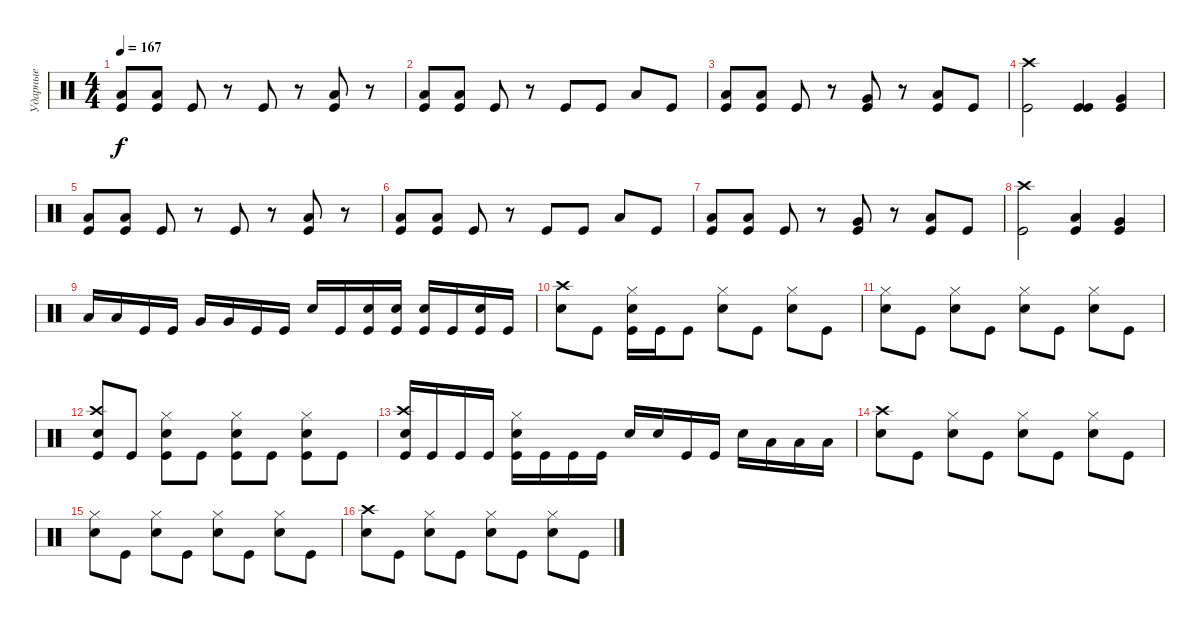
\track ("Ударные" "Ударные") {instrument percussion}
\staff {score}
\articulation defaults
\ts (4 4)
\tempo 167
\clef neutral
\ks c
("Low Tom (hit)" "Kick (hit)").8{dy f} ("Low Tom (hit)" "Kick (hit)").8 "Kick (hit)".8 r.8 "Kick (hit)".8 r.8 ("Low Tom (hit)" "Kick (hit)").8 r.8 |
("Low Tom (hit)" "Kick (hit)").8 ("Low Tom (hit)" "Kick (hit)").8 "Kick (hit)".8 r.8 "Kick (hit)".8 "Kick (hit)".8 "Low Tom (hit)".8 "Kick (hit)".8 |
("Low Tom (hit)" "Kick (hit)").8 ("Low Tom (hit)" "Kick (hit)").8 "Kick (hit)".8 r.8 ("Very Low Tom (hit)" "Kick (hit)").8 r.8 ("Low Tom (hit)" "Kick (hit)").8 "Kick (hit)".8 |
("Crash high (hit)" "Kick (hit)").2 ("Kick (hit)" "Kick (hit)").4 ("Very Low Tom (hit)" "Kick (hit)").4 |
("Low Tom (hit)" "Kick (hit)").8 ("Low Tom (hit)" "Kick (hit)").8 "Kick (hit)".8 r.8 "Kick (hit)".8 r.8 ("Low Tom (hit)" "Kick (hit)").8 r.8 |
("Low Tom (hit)" "Kick (hit)").8 ("Low Tom (hit)" "Kick (hit)").8 "Kick (hit)".8 r.8 "Kick (hit)".8 "Kick (hit)".8 "Low Tom (hit)".8 "Kick (hit)".8 |
("Low Tom (hit)" "Kick (hit)").8 ("Low Tom (hit)" "Kick (hit)").8 "Kick (hit)".8 r.8 ("Very Low Tom (hit)" "Kick (hit)").8 r.8 ("Low Tom (hit)" "Kick (hit)").8 "Kick (hit)".8 |
("Crash high (hit)" "Kick (hit)").2 ("Low Tom (hit)" "Kick (hit)").4 ("Very Low Tom (hit)" "Kick (hit)").4 |
"Low Tom (hit)".16 "Low Tom (hit)".16 "Kick (hit)".16 "Kick (hit)".16 "Very Low Tom (hit)".16 "Very Low Tom (hit)".16 "Kick (hit)".16 "Kick (hit)".16 "Electric Snare (hit)".16 "Kick (hit)".16 ("Electric Snare (hit)" "Kick (hit)").16 ("Electric Snare (hit)" "Kick (hit)").16 ("Electric Snare (hit)" "Kick (hit)").16 "Kick (hit)".16 ("Electric Snare (hit)" "Kick (hit)").16 "Kick (hit)".16 |
("Crash high (hit)" "Electric Snare (hit)").8 "Kick (hit)".8 ("Hi-Hat (closed)" "Electric Snare (hit)" "Kick (hit)").16 "Kick (hit)".16 "Kick (hit)".8 ("Hi-Hat (closed)" "Electric Snare (hit)").8 "Kick (hit)".8 ("Hi-Hat (closed)" "Electric Snare (hit)").8 "Kick (hit)".8 |
("Hi-Hat (closed)" "Electric Snare (hit)").8 "Kick (hit)".8 ("Hi-Hat (closed)" "Electric Snare (hit)").8 "Kick (hit)".8 ("Hi-Hat (closed)" "Electric Snare (hit)").8 "Kick (hit)".8 ("Hi-Hat (closed)" "Electric Snare (hit)").8 "Kick (hit)".8 |
("Crash high (hit)" "Electric Snare (hit)" "Kick (hit)").8 "Kick (hit)".8 ("Hi-Hat (closed)" "Electric Snare (hit)" "Kick (hit)").8 "Kick (hit)".8 ("Hi-Hat (closed)" "Electric Snare (hit)" "Kick (hit)").8 "Kick (hit)".8 ("Hi-Hat (closed)" "Electric Snare (hit)" "Kick (hit)").8 "Kick (hit)".8 |
("Crash high (hit)" "Electric Snare (hit)" "Kick (hit)").16 "Kick (hit)".16 "Kick (hit)".16 "Kick (hit)".16 ("Hi-Hat (closed)" "Electric Snare (hit)" "Kick (hit)").16 "Kick (hit)".16 "Kick (hit)".16 "Kick (hit)".16 "Electric Snare (hit)".16 "Electric Snare (hit)".16 "Kick (hit)".16 "Kick (hit)".16 "Electric Snare (hit)".16 "Low Tom (hit)".16 "Low Tom (hit)".16 "Low Tom (hit)".16 |
("Crash high (hit)" "Electric Snare (hit)").8 "Kick (hit)".8 ("Hi-Hat (closed)" "Electric Snare (hit)").8 "Kick (hit)".8 ("Hi-Hat (closed)" "Electric Snare (hit)").8 "Kick (hit)".8 ("Hi-Hat (closed)" "Electric Snare (hit)").8 "Kick (hit)".8 |
("Hi-Hat (closed)" "Electric Snare (hit)").8 "Kick (hit)".8 ("Hi-Hat (closed)" "Electric Snare (hit)").8 "Kick (hit)".8 ("Hi-Hat (closed)" "Electric Snare (hit)").8 "Kick (hit)".8 ("Hi-Hat (closed)" "Electric Snare (hit)").8 "Kick (hit)".8 |
("Crash high (hit)" "Electric Snare (hit)").8 "Kick (hit)".8 ("Hi-Hat (closed)" "Electric Snare (hit)").8 "Kick (hit)".8 ("Hi-Hat (closed)" "Electric Snare (hit)").8 "Kick (hit)".8 ("Hi-Hat (closed)" "Electric Snare (hit)").8 "Kick (hit)".8
